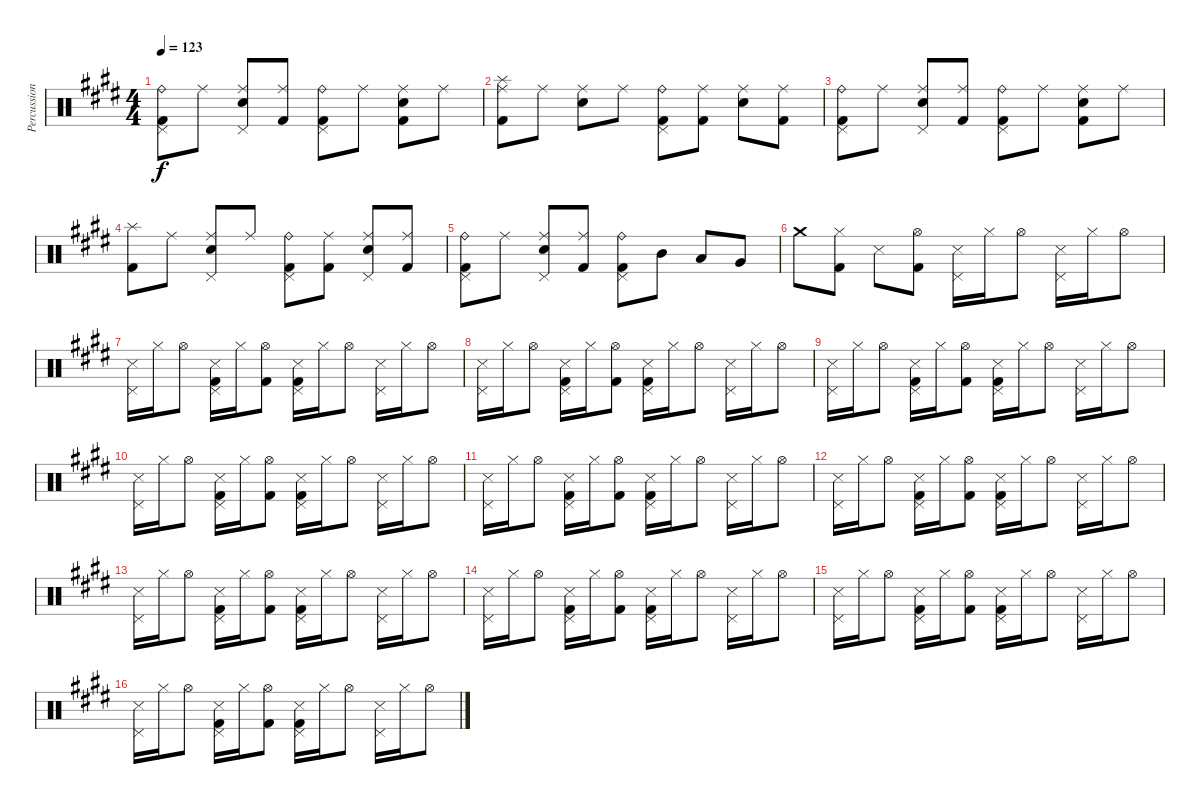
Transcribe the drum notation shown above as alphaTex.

\track ("Percussioni" "Percussion") {instrument percussion}
\staff {score}
\articulation defaults
\ts (4 4)
\tempo 123
\clef neutral
\ks e
("Ride (bell)" "Pedal Hi-Hat (hit)" "Kick (hit) 2").8{dy f} "Ride (middle)".8 ("Pedal Hi-Hat (hit)" "Ride (middle)" "Electric Snare (hit)").8 ("Ride (middle)" "Kick (hit) 2").8 ("Pedal Hi-Hat (hit)" "Ride (bell)" "Kick (hit) 2").8 "Ride (middle)".8 ("Ride (middle)" "Electric Snare (hit)" "Kick (hit) 2").8 "Ride (middle)".8 |
("Splash (hit)" "Ride (middle)" "Kick (hit) 2").8 "Ride (middle)".8 ("Ride (middle)" "Electric Snare (hit)").8 "Ride (middle)".8 ("Ride (bell)" "Pedal Hi-Hat (hit)" "Kick (hit) 2").8 ("Ride (middle)" "Kick (hit) 2").8 ("Ride (middle)" "Electric Snare (hit)").8 ("Ride (middle)" "Kick (hit) 2").8 |
("Ride (bell)" "Pedal Hi-Hat (hit)" "Kick (hit) 2").8 "Ride (middle)".8 ("Pedal Hi-Hat (hit)" "Ride (middle)" "Electric Snare (hit)").8 ("Ride (middle)" "Kick (hit) 2").8 ("Pedal Hi-Hat (hit)" "Ride (bell)" "Kick (hit) 2").8 "Ride (middle)".8 ("Ride (middle)" "Electric Snare (hit)" "Kick (hit) 2").8 "Ride (middle)".8 |
("Splash (hit)" "Kick (hit) 2").8 "Ride (middle)".8 ("Pedal Hi-Hat (hit)" "Ride (middle)" "Electric Snare (hit)").8 "Ride (middle)".8 ("Ride (bell)" "Pedal Hi-Hat (hit)" "Kick (hit) 2").8 ("Ride (middle)" "Kick (hit) 2").8 ("Pedal Hi-Hat (hit)" "Ride (middle)" "Electric Snare (hit)").8 ("Ride (middle)" "Kick (hit) 2").8 |
("Ride (bell)" "Pedal Hi-Hat (hit)" "Kick (hit) 2").8 "Ride (middle)".8 ("Pedal Hi-Hat (hit)" "Ride (middle)" "Electric Snare (hit)").8 ("Ride (middle)" "Kick (hit) 2").8 ("Pedal Hi-Hat (hit)" "Ride (bell)" "Kick (hit) 2").8 "Mid Tom (hit)".8 "Low Tom (hit)".8 "Very Low Tom (hit)".8 |
"Crash medium (hit)".8 ("Hi-Hat (closed)" "Kick (hit) 2").8 "Metronome (hit)".8 ("Hi-Hat (open)" "Kick (hit) 2").8 ("Pedal Hi-Hat (hit)" "Metronome (hit)").16 "Hi-Hat (closed)".16 "Hi-Hat (open)".8 ("Pedal Hi-Hat (hit)" "Metronome (hit)").16 "Hi-Hat (closed)".16 "Hi-Hat (open)".8 |
("Pedal Hi-Hat (hit)" "Metronome (hit)").16 "Hi-Hat (closed)".16 "Hi-Hat (open)".8 ("Pedal Hi-Hat (hit)" "Metronome (hit)" "Kick (hit) 2").16 "Hi-Hat (closed)".16 ("Hi-Hat (open)" "Kick (hit) 2").8 ("Pedal Hi-Hat (hit)" "Metronome (hit)" "Kick (hit) 2").16 "Hi-Hat (closed)".16 "Hi-Hat (open)".8 ("Pedal Hi-Hat (hit)" "Metronome (hit)").16 "Hi-Hat (closed)".16 "Hi-Hat (open)".8 |
("Pedal Hi-Hat (hit)" "Metronome (hit)").16 "Hi-Hat (closed)".16 "Hi-Hat (open)".8 ("Pedal Hi-Hat (hit)" "Metronome (hit)" "Kick (hit) 2").16 "Hi-Hat (closed)".16 ("Hi-Hat (open)" "Kick (hit) 2").8 ("Pedal Hi-Hat (hit)" "Metronome (hit)" "Kick (hit) 2").16 "Hi-Hat (closed)".16 "Hi-Hat (open)".8 ("Pedal Hi-Hat (hit)" "Metronome (hit)").16 "Hi-Hat (closed)".16 "Hi-Hat (open)".8 |
("Pedal Hi-Hat (hit)" "Metronome (hit)").16 "Hi-Hat (closed)".16 "Hi-Hat (open)".8 ("Pedal Hi-Hat (hit)" "Metronome (hit)" "Kick (hit) 2").16 "Hi-Hat (closed)".16 ("Hi-Hat (open)" "Kick (hit) 2").8 ("Pedal Hi-Hat (hit)" "Metronome (hit)" "Kick (hit) 2").16 "Hi-Hat (closed)".16 "Hi-Hat (open)".8 ("Pedal Hi-Hat (hit)" "Metronome (hit)").16 "Hi-Hat (closed)".16 "Hi-Hat (open)".8 |
("Pedal Hi-Hat (hit)" "Metronome (hit)").16 "Hi-Hat (closed)".16 "Hi-Hat (open)".8 ("Pedal Hi-Hat (hit)" "Metronome (hit)" "Kick (hit) 2").16 "Hi-Hat (closed)".16 ("Hi-Hat (open)" "Kick (hit) 2").8 ("Pedal Hi-Hat (hit)" "Metronome (hit)" "Kick (hit) 2").16 "Hi-Hat (closed)".16 "Hi-Hat (open)".8 ("Pedal Hi-Hat (hit)" "Metronome (hit)").16 "Hi-Hat (closed)".16 "Hi-Hat (open)".8 |
("Pedal Hi-Hat (hit)" "Metronome (hit)").16 "Hi-Hat (closed)".16 "Hi-Hat (open)".8 ("Pedal Hi-Hat (hit)" "Metronome (hit)" "Kick (hit) 2").16 "Hi-Hat (closed)".16 ("Hi-Hat (open)" "Kick (hit) 2").8 ("Pedal Hi-Hat (hit)" "Metronome (hit)" "Kick (hit) 2").16 "Hi-Hat (closed)".16 "Hi-Hat (open)".8 ("Pedal Hi-Hat (hit)" "Metronome (hit)").16 "Hi-Hat (closed)".16 "Hi-Hat (open)".8 |
("Pedal Hi-Hat (hit)" "Metronome (hit)").16 "Hi-Hat (closed)".16 "Hi-Hat (open)".8 ("Pedal Hi-Hat (hit)" "Metronome (hit)" "Kick (hit) 2").16 "Hi-Hat (closed)".16 ("Hi-Hat (open)" "Kick (hit) 2").8 ("Pedal Hi-Hat (hit)" "Metronome (hit)" "Kick (hit) 2").16 "Hi-Hat (closed)".16 "Hi-Hat (open)".8 ("Pedal Hi-Hat (hit)" "Metronome (hit)").16 "Hi-Hat (closed)".16 "Hi-Hat (open)".8 |
("Pedal Hi-Hat (hit)" "Metronome (hit)").16 "Hi-Hat (closed)".16 "Hi-Hat (open)".8 ("Pedal Hi-Hat (hit)" "Metronome (hit)" "Kick (hit) 2").16 "Hi-Hat (closed)".16 ("Hi-Hat (open)" "Kick (hit) 2").8 ("Pedal Hi-Hat (hit)" "Metronome (hit)" "Kick (hit) 2").16 "Hi-Hat (closed)".16 "Hi-Hat (open)".8 ("Pedal Hi-Hat (hit)" "Metronome (hit)").16 "Hi-Hat (closed)".16 "Hi-Hat (open)".8 |
("Pedal Hi-Hat (hit)" "Metronome (hit)").16 "Hi-Hat (closed)".16 "Hi-Hat (open)".8 ("Pedal Hi-Hat (hit)" "Metronome (hit)" "Kick (hit) 2").16 "Hi-Hat (closed)".16 ("Hi-Hat (open)" "Kick (hit) 2").8 ("Pedal Hi-Hat (hit)" "Metronome (hit)" "Kick (hit) 2").16 "Hi-Hat (closed)".16 "Hi-Hat (open)".8 ("Pedal Hi-Hat (hit)" "Metronome (hit)").16 "Hi-Hat (closed)".16 "Hi-Hat (open)".8 |
("Pedal Hi-Hat (hit)" "Metronome (hit)").16 "Hi-Hat (closed)".16 "Hi-Hat (open)".8 ("Pedal Hi-Hat (hit)" "Metronome (hit)" "Kick (hit) 2").16 "Hi-Hat (closed)".16 ("Hi-Hat (open)" "Kick (hit) 2").8 ("Pedal Hi-Hat (hit)" "Metronome (hit)" "Kick (hit) 2").16 "Hi-Hat (closed)".16 "Hi-Hat (open)".8 ("Pedal Hi-Hat (hit)" "Metronome (hit)").16 "Hi-Hat (closed)".16 "Hi-Hat (open)".8 |
("Pedal Hi-Hat (hit)" "Metronome (hit)").16 "Hi-Hat (closed)".16 "Hi-Hat (open)".8 ("Pedal Hi-Hat (hit)" "Metronome (hit)" "Kick (hit) 2").16 "Hi-Hat (closed)".16 ("Hi-Hat (open)" "Kick (hit) 2").8 ("Pedal Hi-Hat (hit)" "Metronome (hit)" "Kick (hit) 2").16 "Hi-Hat (closed)".16 "Hi-Hat (open)".8 ("Pedal Hi-Hat (hit)" "Metronome (hit)").16 "Hi-Hat (closed)".16 "Hi-Hat (open)".8
